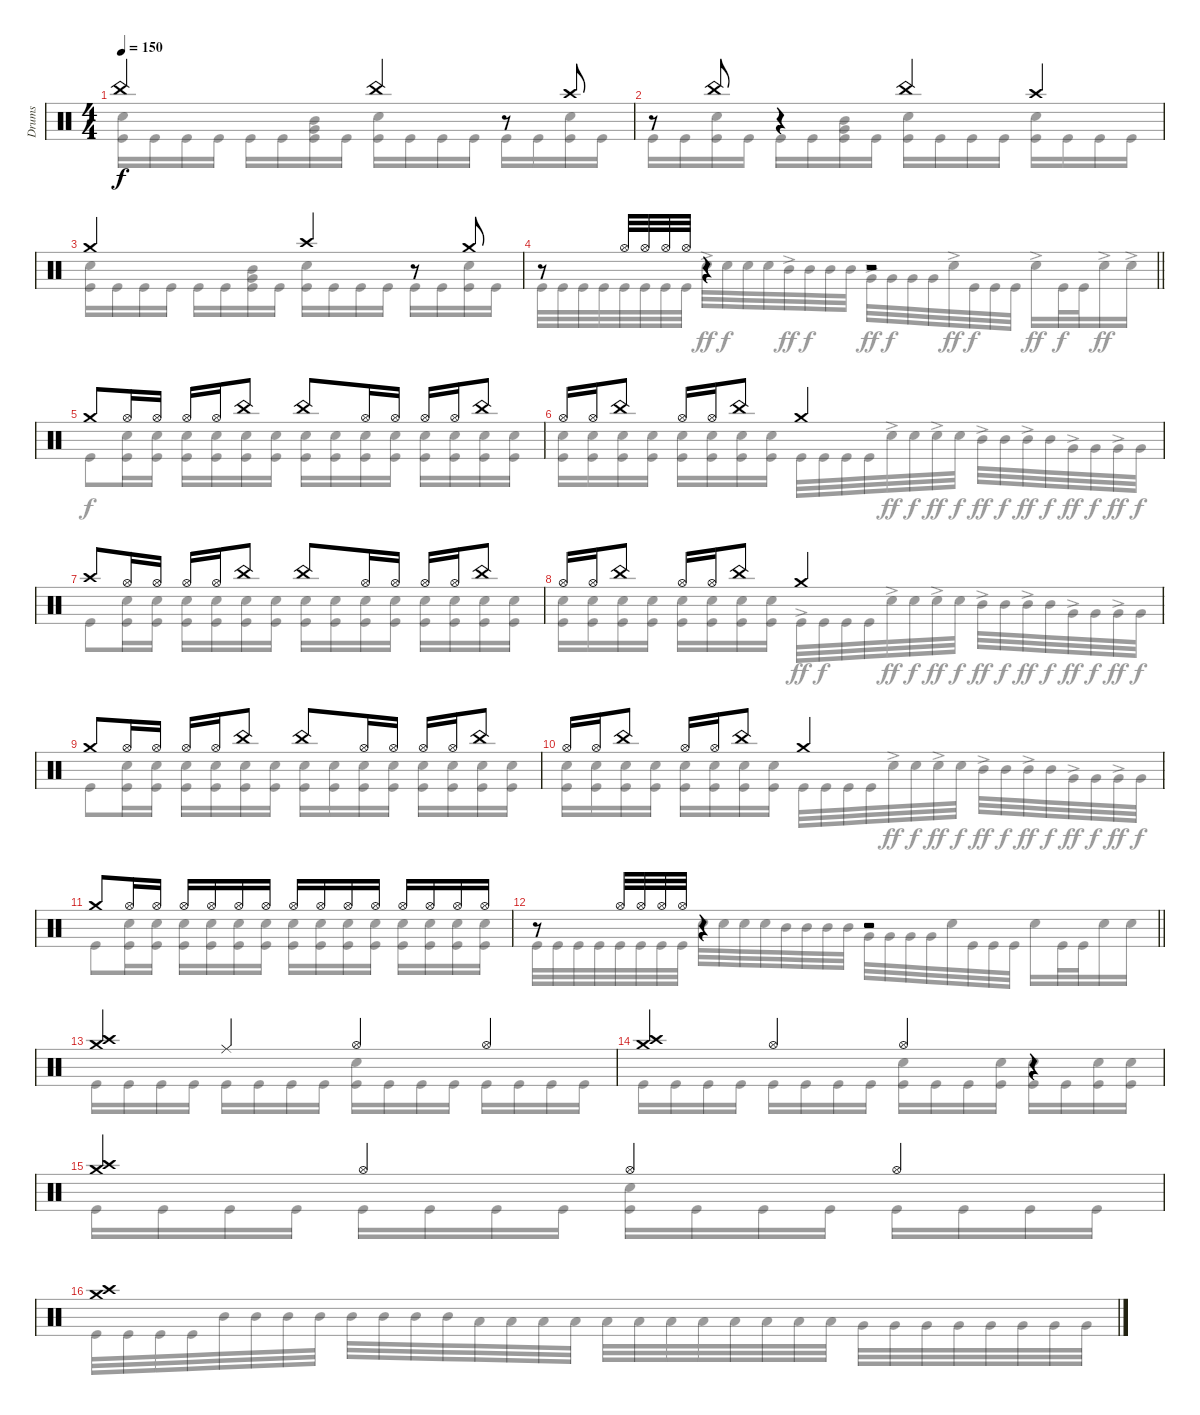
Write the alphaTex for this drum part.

\track ("Drums" "Drums") {instrument percussion}
\staff {score}
\articulation defaults
\voice
\ts (4 4)
\tempo 150
\tempo 148
\tempo 150
\clef neutral
\ks c "China (hit)".2{dy f} "China (hit)".4
r.8 "Crash high (hit)".8 |
r.8 "China (hit)".8 r.4 "China (hit)".4 "Crash high (hit)".4 |
"Crash medium (hit)".2 "Crash high (hit)".4 r.8 "Crash medium (hit)".8 |
\barLineRight lightlight
r.8 "Hi-Hat (open)".32 "Hi-Hat (open)".32 "Hi-Hat (open)".32 "Hi-Hat (open)".32 r.4 r.2 |
\section ("" "")
"Crash medium (hit)".8 "Hi-Hat (open)".16 "Hi-Hat (open)".16 "Hi-Hat (open)".16 "Hi-Hat (open)".16 "China (hit)".8 "China (hit)".8 "Hi-Hat (open)".16 "Hi-Hat (open)".16 "Hi-Hat (open)".16 "Hi-Hat (open)".16 "China (hit)".8 |
"Hi-Hat (open)".16 "Hi-Hat (open)".16 "China (hit)".8 "Hi-Hat (open)".16 "Hi-Hat (open)".16 "China (hit)".8 "Crash medium (hit)".2 |
"Crash high (hit)".8 "Hi-Hat (open)".16 "Hi-Hat (open)".16 "Hi-Hat (open)".16 "Hi-Hat (open)".16 "China (hit)".8 "China (hit)".8 "Hi-Hat (open)".16 "Hi-Hat (open)".16 "Hi-Hat (open)".16 "Hi-Hat (open)".16 "China (hit)".8 |
"Hi-Hat (open)".16 "Hi-Hat (open)".16 "China (hit)".8 "Hi-Hat (open)".16 "Hi-Hat (open)".16 "China (hit)".8 "Crash medium (hit)".2 |
"Crash medium (hit)".8 "Hi-Hat (open)".16 "Hi-Hat (open)".16 "Hi-Hat (open)".16 "Hi-Hat (open)".16 "China (hit)".8 "China (hit)".8 "Hi-Hat (open)".16 "Hi-Hat (open)".16 "Hi-Hat (open)".16 "Hi-Hat (open)".16 "China (hit)".8 |
"Hi-Hat (open)".16 "Hi-Hat (open)".16 "China (hit)".8 "Hi-Hat (open)".16 "Hi-Hat (open)".16 "China (hit)".8 "Crash medium (hit)".2 |
"Crash medium (hit)".8 "Hi-Hat (open)".16 "Hi-Hat (open)".16 "Hi-Hat (open)".16 "Hi-Hat (open)".16 "Hi-Hat (open)".16 "Hi-Hat (open)".16 "Hi-Hat (open)".16 "Hi-Hat (open)".16 "Hi-Hat (open)".16 "Hi-Hat (open)".16 "Hi-Hat (open)".16 "Hi-Hat (open)".16 "Hi-Hat (open)".16 "Hi-Hat (open)".16 |
\barLineRight lightlight
r.8 "Hi-Hat (open)".32 "Hi-Hat (open)".32 "Hi-Hat (open)".32 "Hi-Hat (open)".32 r.4 r.2 |
("Crash medium (hit)" "Crash high (hit)").4 "Ride (middle)".4 "Hi-Hat (open)".4 "Hi-Hat (open)".4 |
("Crash medium (hit)" "Crash high (hit)").4 "Hi-Hat (open)".4 "Hi-Hat (open)".4 r.4 |
("Crash medium (hit)" "Crash high (hit)").4 "Hi-Hat (open)".4 "Hi-Hat (open)".4 "Hi-Hat (open)".4 |
("Crash medium (hit)" "Crash high (hit)").1
\voice
\clef neutral
\ottava regular
\simile none
\ks c
("Snare (hit) 2" "Kick (hit)").16{dy f} "Kick (hit)".16 "Kick (hit)".16 "Kick (hit)".16 "Kick (hit)".16 "Kick (hit)".16 ("Mid Tom (hit)" "Very Low Tom (hit)" "Kick (hit)").16 "Kick (hit)".16 ("Snare (hit) 2" "Kick (hit)").16 "Kick (hit)".16 "Kick (hit)".16 "Kick (hit)".16 "Kick (hit)".16 "Kick (hit)".16 ("Snare (hit) 2" "Kick (hit)").16 "Kick (hit)".16 |
"Kick (hit)".16 "Kick (hit)".16 ("Snare (hit) 2" "Kick (hit)").16 "Kick (hit)".16 "Kick (hit)".16 "Kick (hit)".16 ("Mid Tom (hit)" "Very Low Tom (hit)" "Kick (hit)").16 "Kick (hit)".16 ("Snare (hit) 2" "Kick (hit)").16 "Kick (hit)".16 "Kick (hit)".16 "Kick (hit)".16 ("Snare (hit) 2" "Kick (hit)").16 "Kick (hit)".16 "Kick (hit)".16 "Kick (hit)".16 |
("Snare (hit) 2" "Kick (hit)").16 "Kick (hit)".16 "Kick (hit)".16 "Kick (hit)".16 "Kick (hit)".16 "Kick (hit)".16 ("Mid Tom (hit)" "Very Low Tom (hit)" "Kick (hit)").16 "Kick (hit)".16 ("Snare (hit) 2" "Kick (hit)").16 "Kick (hit)".16 "Kick (hit)".16 "Kick (hit)".16 "Kick (hit)".16 "Kick (hit)".16 ("Snare (hit) 2" "Kick (hit)").16 "Kick (hit)".16 |
\barLineRight lightlight "Kick (hit)".32 "Kick (hit)".32 "Kick (hit)".32 "Kick (hit)".32 "Kick (hit)".32 "Kick (hit)".32 "Kick (hit)".32 "Kick (hit)".32 "Snare (hit) 2"{ac}.32{dy ff} "Snare (hit) 2".32{dy f} "Snare (hit) 2".32 "Snare (hit) 2".32 "Mid Tom (hit)"{ac}.32{dy ff} "Mid Tom (hit)".32{dy f} "Mid Tom (hit)".32 "Mid Tom (hit)".32 "Very Low Tom (hit)"{ac}.32{dy ff} "Very Low Tom (hit)".32{dy f} "Very Low Tom (hit)".32 "Very Low Tom (hit)".32 "Snare (hit) 2"{ac}.32{dy ff} "Kick (hit)".32{dy f} "Kick (hit)".32 "Kick (hit)".32 "Snare (hit) 2"{ac}.16{dy ff} "Kick (hit)".32{dy f} "Kick (hit)".32 "Snare (hit) 2"{ac}.16{dy ff} "Snare (hit) 2"{ac}.16
|
"Kick (hit)".8{dy f} ("Snare (hit) 2" "Kick (hit)").16 ("Snare (hit) 2" "Kick (hit)").16 ("Snare (hit) 2" "Kick (hit)").16 ("Snare (hit) 2" "Kick (hit)").16 ("Snare (hit) 2" "Kick (hit)").16 ("Snare (hit) 2" "Kick (hit)").16 ("Snare (hit) 2" "Kick (hit)").16 ("Snare (hit) 2" "Kick (hit)").16 ("Snare (hit) 2" "Kick (hit)").16 ("Snare (hit) 2" "Kick (hit)").16 ("Snare (hit) 2" "Kick (hit)").16 ("Snare (hit) 2" "Kick (hit)").16 ("Snare (hit) 2" "Kick (hit)").16 ("Snare (hit) 2" "Kick (hit)").16 |
("Snare (hit) 2" "Kick (hit)").16 ("Snare (hit) 2" "Kick (hit)").16 ("Snare (hit) 2" "Kick (hit)").16 ("Snare (hit) 2" "Kick (hit)").16 ("Snare (hit) 2" "Kick (hit)").16 ("Snare (hit) 2" "Kick (hit)").16 ("Snare (hit) 2" "Kick (hit)").16 ("Snare (hit) 2" "Kick (hit)").16 "Kick (hit)".32 "Kick (hit)".32 "Kick (hit)".32 "Kick (hit)".32 "Snare (hit) 2"{ac}.32{dy ff} "Snare (hit) 2".32{dy f} "Snare (hit) 2"{ac}.32{dy ff} "Snare (hit) 2".32{dy f} "Mid Tom (hit)"{ac}.32{dy ff} "Mid Tom (hit)".32{dy f} "Mid Tom (hit)"{ac}.32{dy ff} "Mid Tom (hit)".32{dy f} "Very Low Tom (hit)"{ac}.32{dy ff} "Very Low Tom (hit)".32{dy f} "Very Low Tom (hit)"{ac}.32{dy ff} "Very Low Tom (hit)".32{dy f} |
"Kick (hit)".8 ("Snare (hit) 2" "Kick (hit)").16 ("Snare (hit) 2" "Kick (hit)").16 ("Snare (hit) 2" "Kick (hit)").16 ("Snare (hit) 2" "Kick (hit)").16 ("Snare (hit) 2" "Kick (hit)").16 ("Snare (hit) 2" "Kick (hit)").16 ("Snare (hit) 2" "Kick (hit)").16 ("Snare (hit) 2" "Kick (hit)").16 ("Snare (hit) 2" "Kick (hit)").16 ("Snare (hit) 2" "Kick (hit)").16 ("Snare (hit) 2" "Kick (hit)").16 ("Snare (hit) 2" "Kick (hit)").16 ("Snare (hit) 2" "Kick (hit)").16 ("Snare (hit) 2" "Kick (hit)").16 |
("Snare (hit) 2" "Kick (hit)").16 ("Snare (hit) 2" "Kick (hit)").16 ("Snare (hit) 2" "Kick (hit)").16 ("Snare (hit) 2" "Kick (hit)").16 ("Snare (hit) 2" "Kick (hit)").16 ("Snare (hit) 2" "Kick (hit)").16 ("Snare (hit) 2" "Kick (hit)").16 ("Snare (hit) 2" "Kick (hit)").16 "Kick (hit)"{ac}.32{dy ff} "Kick (hit)".32{dy f} "Kick (hit)".32 "Kick (hit)".32 "Snare (hit) 2"{ac}.32{dy ff} "Snare (hit) 2".32{dy f} "Snare (hit) 2"{ac}.32{dy ff} "Snare (hit) 2".32{dy f} "Mid Tom (hit)"{ac}.32{dy ff} "Mid Tom (hit)".32{dy f} "Mid Tom (hit)"{ac}.32{dy ff} "Mid Tom (hit)".32{dy f} "Very Low Tom (hit)"{ac}.32{dy ff} "Very Low Tom (hit)".32{dy f} "Very Low Tom (hit)"{ac}.32{dy ff} "Very Low Tom (hit)".32{dy f} |
"Kick (hit)".8 ("Snare (hit) 2" "Kick (hit)").16 ("Snare (hit) 2" "Kick (hit)").16 ("Snare (hit) 2" "Kick (hit)").16 ("Snare (hit) 2" "Kick (hit)").16 ("Snare (hit) 2" "Kick (hit)").16 ("Snare (hit) 2" "Kick (hit)").16 ("Snare (hit) 2" "Kick (hit)").16 ("Snare (hit) 2" "Kick (hit)").16 ("Snare (hit) 2" "Kick (hit)").16 ("Snare (hit) 2" "Kick (hit)").16 ("Snare (hit) 2" "Kick (hit)").16 ("Snare (hit) 2" "Kick (hit)").16 ("Snare (hit) 2" "Kick (hit)").16 ("Snare (hit) 2" "Kick (hit)").16 |
("Snare (hit) 2" "Kick (hit)").16 ("Snare (hit) 2" "Kick (hit)").16 ("Snare (hit) 2" "Kick (hit)").16 ("Snare (hit) 2" "Kick (hit)").16 ("Snare (hit) 2" "Kick (hit)").16 ("Snare (hit) 2" "Kick (hit)").16 ("Snare (hit) 2" "Kick (hit)").16 ("Snare (hit) 2" "Kick (hit)").16 "Kick (hit)".32 "Kick (hit)".32 "Kick (hit)".32 "Kick (hit)".32 "Snare (hit) 2"{ac}.32{dy ff} "Snare (hit) 2".32{dy f} "Snare (hit) 2"{ac}.32{dy ff} "Snare (hit) 2".32{dy f} "Mid Tom (hit)"{ac}.32{dy ff} "Mid Tom (hit)".32{dy f} "Mid Tom (hit)"{ac}.32{dy ff} "Mid Tom (hit)".32{dy f} "Very Low Tom (hit)"{ac}.32{dy ff} "Very Low Tom (hit)".32{dy f} "Very Low Tom (hit)"{ac}.32{dy ff} "Very Low Tom (hit)".32{dy f} |
"Kick (hit)".8 ("Snare (hit) 2" "Kick (hit)").16 ("Snare (hit) 2" "Kick (hit)").16 ("Snare (hit) 2" "Kick (hit)").16 ("Snare (hit) 2" "Kick (hit)").16 ("Snare (hit) 2" "Kick (hit)").16 ("Snare (hit) 2" "Kick (hit)").16 ("Snare (hit) 2" "Kick (hit)").16 ("Snare (hit) 2" "Kick (hit)").16 ("Snare (hit) 2" "Kick (hit)").16 ("Snare (hit) 2" "Kick (hit)").16 ("Snare (hit) 2" "Kick (hit)").16 ("Snare (hit) 2" "Kick (hit)").16 ("Snare (hit) 2" "Kick (hit)").16 ("Snare (hit) 2" "Kick (hit)").16 |
\barLineRight lightlight "Kick (hit)".32 "Kick (hit)".32 "Kick (hit)".32 "Kick (hit)".32 "Kick (hit)".32 "Kick (hit)".32 "Kick (hit)".32 "Kick (hit)".32 "Snare (hit) 2".32 "Snare (hit) 2".32 "Snare (hit) 2".32 "Snare (hit) 2".32 "Mid Tom (hit)".32 "Mid Tom (hit)".32 "Mid Tom (hit)".32 "Mid Tom (hit)".32 "Very Low Tom (hit)".32 "Very Low Tom (hit)".32 "Very Low Tom (hit)".32 "Very Low Tom (hit)".32 "Snare (hit) 2".32 "Kick (hit)".32 "Kick (hit)".32 "Kick (hit)".32 "Snare (hit) 2".16 "Kick (hit)".32 "Kick (hit)".32 "Snare (hit) 2".16 "Snare (hit) 2".16
|
"Kick (hit)".16 "Kick (hit)".16 "Kick (hit)".16 "Kick (hit)".16 "Kick (hit)".16 "Kick (hit)".16 "Kick (hit)".16 "Kick (hit)".16 ("Snare (hit) 2" "Kick (hit)").16 "Kick (hit)".16 "Kick (hit)".16 "Kick (hit)".16 "Kick (hit)".16 "Kick (hit)".16 "Kick (hit)".16 "Kick (hit)".16 |
"Kick (hit)".16 "Kick (hit)".16 "Kick (hit)".16 "Kick (hit)".16 "Kick (hit)".16 "Kick (hit)".16 "Kick (hit)".16 "Kick (hit)".16 ("Snare (hit) 2" "Kick (hit)").16 "Kick (hit)".16 "Kick (hit)".16 ("Snare (hit) 2" "Kick (hit)").16 ("Snare (hit) 2" "Kick (hit)").16 "Kick (hit)".16 ("Snare (hit) 2" "Kick (hit)").16 ("Snare (hit) 2" "Kick (hit)").16 |
"Kick (hit)".16 "Kick (hit)".16 "Kick (hit)".16 "Kick (hit)".16 "Kick (hit)".16 "Kick (hit)".16 "Kick (hit)".16 "Kick (hit)".16 ("Snare (hit) 2" "Kick (hit)").16 "Kick (hit)".16 "Kick (hit)".16 "Kick (hit)".16 "Kick (hit)".16 "Kick (hit)".16 "Kick (hit)".16 "Kick (hit)".16 |
"Kick (hit)".32 "Kick (hit)".32 "Kick (hit)".32 "Kick (hit)".32 "Mid Tom (hit)".32 "Mid Tom (hit)".32 "Mid Tom (hit)".32 "Mid Tom (hit)".32 "Mid Tom (hit)".32 "Mid Tom (hit)".32 "Mid Tom (hit)".32 "Mid Tom (hit)".32 "Low Tom (hit)".32 "Low Tom (hit)".32 "Low Tom (hit)".32 "Low Tom (hit)".32 "Low Tom (hit)".32 "Low Tom (hit)".32 "Low Tom (hit)".32 "Low Tom (hit)".32 "Low Tom (hit)".32 "Low Tom (hit)".32 "Low Tom (hit)".32 "Low Tom (hit)".32 "Very Low Tom (hit)".32 "Very Low Tom (hit)".32 "Very Low Tom (hit)".32 "Very Low Tom (hit)".32 "Very Low Tom (hit)".32 "Very Low Tom (hit)".32 "Very Low Tom (hit)".32 "Very Low Tom (hit)".32
